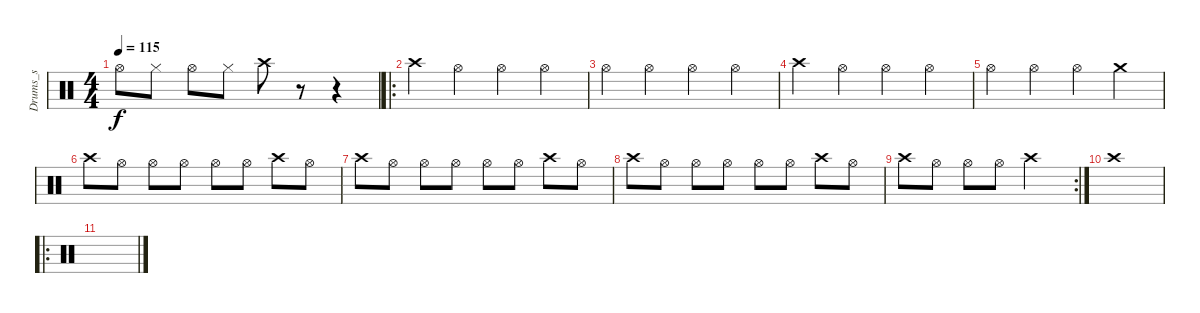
\track ("Drums_s" "Drums_s") {instrument percussion}
\staff {score}
\articulation defaults
\ts (4 4)
\tempo 115
\clef neutral
\ks c "Hi-Hat (open)".8{dy f} "Hi-Hat (closed)".8 "Hi-Hat (open)".8 "Hi-Hat (closed)".8 "Crash high (hit)".8
r.8 r.4 |
\ro "Crash high (hit)".4 "Hi-Hat (open)".4 "Hi-Hat (open)".4 "Hi-Hat (open)".4
|
"Hi-Hat (open)".4 "Hi-Hat (open)".4 "Hi-Hat (open)".4 "Hi-Hat (open)".4 |
"Crash high (hit)".4 "Hi-Hat (open)".4 "Hi-Hat (open)".4 "Hi-Hat (open)".4 |
"Hi-Hat (open)".4 "Hi-Hat (open)".4 "Hi-Hat (open)".4 "Crash medium (hit)".4 |
"Crash high (hit)".8 "Hi-Hat (open)".8 "Hi-Hat (open)".8 "Hi-Hat (open)".8 "Hi-Hat (open)".8 "Hi-Hat (open)".8 "Crash high (hit)".8 "Hi-Hat (open)".8 |
"Crash high (hit)".8 "Hi-Hat (open)".8 "Hi-Hat (open)".8 "Hi-Hat (open)".8 "Hi-Hat (open)".8 "Hi-Hat (open)".8 "Crash high (hit)".8 "Hi-Hat (open)".8 |
"Crash high (hit)".8 "Hi-Hat (open)".8 "Hi-Hat (open)".8 "Hi-Hat (open)".8 "Hi-Hat (open)".8 "Hi-Hat (open)".8 "Crash high (hit)".8 "Hi-Hat (open)".8 |
\rc 2 "Crash high (hit)".8 "Hi-Hat (open)".8 "Hi-Hat (open)".8 "Hi-Hat (open)".8 "Crash high (hit)".2
|
"Crash high (hit)".1 |
\ro
